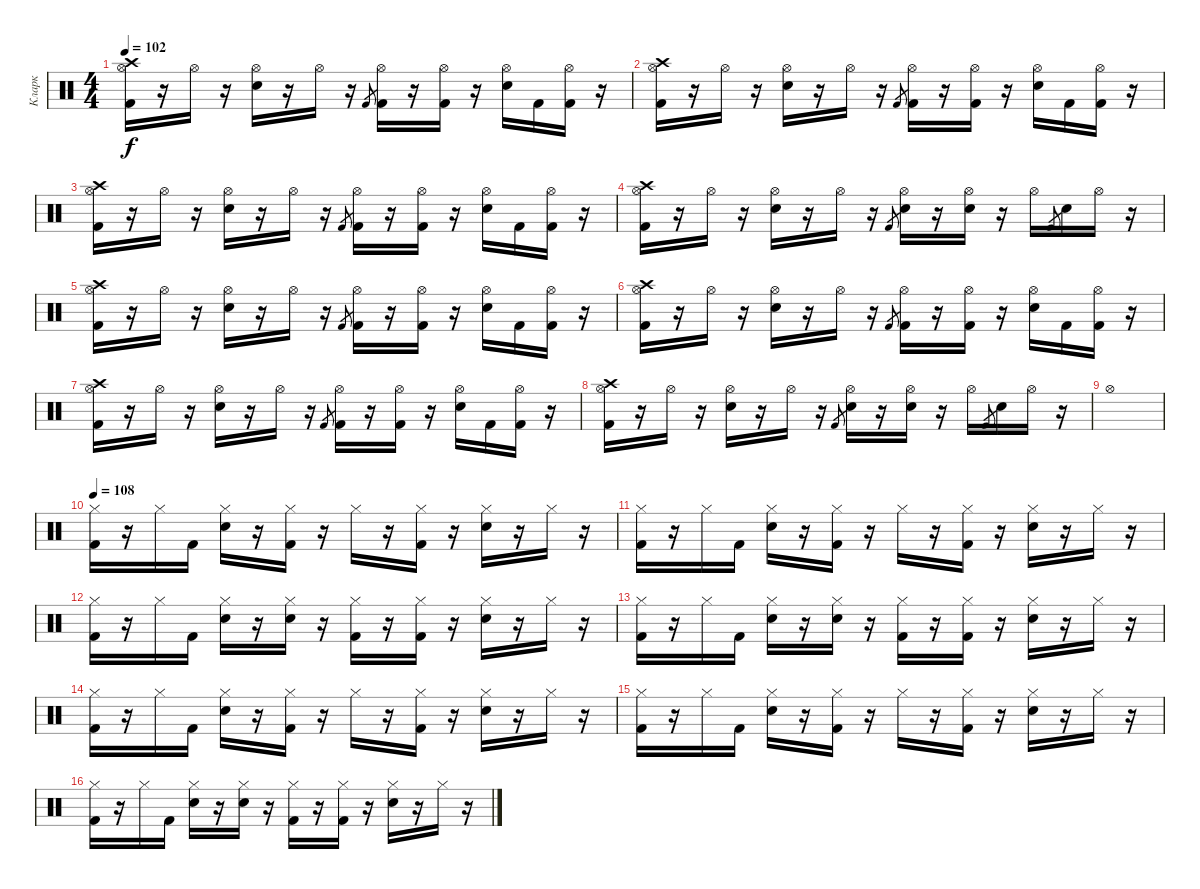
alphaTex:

\track ("Кларк" "Кларк") {instrument percussion}
\staff {score}
\articulation defaults
\ts (4 4)
\tempo 102
\clef neutral
\ks c
("Hi-Hat (open)" "Crash high (hit)" "Kick (hit) 2").16{dy f} r.16 "Hi-Hat (open)".16 r.16 ("Hi-Hat (open)" "Electric Snare (hit)").16 r.16 "Hi-Hat (open)".16 r.16 "Kick (hit) 2".8{gr} ("Hi-Hat (open)" "Kick (hit) 2").16 r.16 ("Hi-Hat (open)" "Kick (hit) 2").16 r.16 ("Hi-Hat (open)" "Electric Snare (hit)").16 "Kick (hit) 2".16 ("Hi-Hat (open)" "Kick (hit) 2").16 r.16 |
("Hi-Hat (open)" "Crash high (hit)" "Kick (hit) 2").16 r.16 "Hi-Hat (open)".16 r.16 ("Hi-Hat (open)" "Electric Snare (hit)").16 r.16 "Hi-Hat (open)".16 r.16 "Kick (hit) 2".8{gr} ("Hi-Hat (open)" "Kick (hit) 2").16 r.16 ("Hi-Hat (open)" "Kick (hit) 2").16 r.16 ("Hi-Hat (open)" "Electric Snare (hit)").16 "Kick (hit) 2".16 ("Hi-Hat (open)" "Kick (hit) 2").16 r.16 |
("Hi-Hat (open)" "Crash high (hit)" "Kick (hit) 2").16 r.16 "Hi-Hat (open)".16 r.16 ("Hi-Hat (open)" "Electric Snare (hit)").16 r.16 "Hi-Hat (open)".16 r.16 "Kick (hit) 2".8{gr} ("Hi-Hat (open)" "Kick (hit) 2").16 r.16 ("Hi-Hat (open)" "Kick (hit) 2").16 r.16 ("Hi-Hat (open)" "Electric Snare (hit)").16 "Kick (hit) 2".16 ("Hi-Hat (open)" "Kick (hit) 2").16 r.16 |
("Hi-Hat (open)" "Crash high (hit)" "Kick (hit) 2").16 r.16 "Hi-Hat (open)".16 r.16 ("Hi-Hat (open)" "Electric Snare (hit)").16 r.16 "Hi-Hat (open)".16 r.16 "Kick (hit) 2".8{gr} ("Hi-Hat (open)" "Electric Snare (hit)").16 r.16 ("Hi-Hat (open)" "Electric Snare (hit)").16 r.16 "Hi-Hat (open)".16 "Kick (hit) 2".8{gr} "Electric Snare (hit)".16 "Hi-Hat (open)".16 r.16 |
("Hi-Hat (open)" "Crash high (hit)" "Kick (hit) 2").16 r.16 "Hi-Hat (open)".16 r.16 ("Hi-Hat (open)" "Electric Snare (hit)").16 r.16 "Hi-Hat (open)".16 r.16 "Kick (hit) 2".8{gr} ("Hi-Hat (open)" "Kick (hit) 2").16 r.16 ("Hi-Hat (open)" "Kick (hit) 2").16 r.16 ("Hi-Hat (open)" "Electric Snare (hit)").16 "Kick (hit) 2".16 ("Hi-Hat (open)" "Kick (hit) 2").16 r.16 |
("Hi-Hat (open)" "Crash high (hit)" "Kick (hit) 2").16 r.16 "Hi-Hat (open)".16 r.16 ("Hi-Hat (open)" "Electric Snare (hit)").16 r.16 "Hi-Hat (open)".16 r.16 "Kick (hit) 2".8{gr} ("Hi-Hat (open)" "Kick (hit) 2").16 r.16 ("Hi-Hat (open)" "Kick (hit) 2").16 r.16 ("Hi-Hat (open)" "Electric Snare (hit)").16 "Kick (hit) 2".16 ("Hi-Hat (open)" "Kick (hit) 2").16 r.16 |
("Hi-Hat (open)" "Crash high (hit)" "Kick (hit) 2").16 r.16 "Hi-Hat (open)".16 r.16 ("Hi-Hat (open)" "Electric Snare (hit)").16 r.16 "Hi-Hat (open)".16 r.16 "Kick (hit) 2".8{gr} ("Hi-Hat (open)" "Kick (hit) 2").16 r.16 ("Hi-Hat (open)" "Kick (hit) 2").16 r.16 ("Hi-Hat (open)" "Electric Snare (hit)").16 "Kick (hit) 2".16 ("Hi-Hat (open)" "Kick (hit) 2").16 r.16 |
("Hi-Hat (open)" "Crash high (hit)" "Kick (hit) 2").16 r.16 "Hi-Hat (open)".16 r.16 ("Hi-Hat (open)" "Electric Snare (hit)").16 r.16 "Hi-Hat (open)".16 r.16 "Kick (hit) 2".8{gr} ("Hi-Hat (open)" "Electric Snare (hit)").16 r.16 ("Hi-Hat (open)" "Electric Snare (hit)").16 r.16 "Hi-Hat (open)".16 "Kick (hit) 2".8{gr} "Electric Snare (hit)".16 "Hi-Hat (open)".16 r.16 |
"Hi-Hat (open)".1 |
\tempo 108
("Hi-Hat (closed)" "Kick (hit) 2").16 r.16 "Hi-Hat (closed)".16 "Kick (hit) 2".16 ("Hi-Hat (closed)" "Electric Snare (hit)").16 r.16 ("Hi-Hat (closed)" "Kick (hit) 2").16 r.16 "Hi-Hat (closed)".16 r.16 ("Hi-Hat (closed)" "Kick (hit) 2").16 r.16 ("Hi-Hat (closed)" "Electric Snare (hit)").16 r.16 "Hi-Hat (closed)".16 r.16 |
("Hi-Hat (closed)" "Kick (hit) 2").16 r.16 "Hi-Hat (closed)".16 "Kick (hit) 2".16 ("Hi-Hat (closed)" "Electric Snare (hit)").16 r.16 ("Hi-Hat (closed)" "Kick (hit) 2").16 r.16 "Hi-Hat (closed)".16 r.16 ("Hi-Hat (closed)" "Kick (hit) 2").16 r.16 ("Hi-Hat (closed)" "Electric Snare (hit)").16 r.16 "Hi-Hat (closed)".16 r.16 |
("Hi-Hat (closed)" "Kick (hit) 2").16 r.16 "Hi-Hat (closed)".16 "Kick (hit) 2".16 ("Hi-Hat (closed)" "Electric Snare (hit)").16 r.16 ("Hi-Hat (closed)" "Electric Snare (hit)").16 r.16 ("Hi-Hat (closed)" "Kick (hit) 2").16 r.16 ("Hi-Hat (closed)" "Kick (hit) 2").16 r.16 ("Hi-Hat (closed)" "Electric Snare (hit)").16 r.16 "Hi-Hat (closed)".16 r.16 |
("Hi-Hat (closed)" "Kick (hit) 2").16 r.16 "Hi-Hat (closed)".16 "Kick (hit) 2".16 ("Hi-Hat (closed)" "Electric Snare (hit)").16 r.16 ("Hi-Hat (closed)" "Electric Snare (hit)").16 r.16 ("Hi-Hat (closed)" "Kick (hit) 2").16 r.16 ("Hi-Hat (closed)" "Kick (hit) 2").16 r.16 ("Hi-Hat (closed)" "Electric Snare (hit)").16 r.16 "Hi-Hat (closed)".16 r.16 |
("Hi-Hat (closed)" "Kick (hit) 2").16 r.16 "Hi-Hat (closed)".16 "Kick (hit) 2".16 ("Hi-Hat (closed)" "Electric Snare (hit)").16 r.16 ("Hi-Hat (closed)" "Kick (hit) 2").16 r.16 "Hi-Hat (closed)".16 r.16 ("Hi-Hat (closed)" "Kick (hit) 2").16 r.16 ("Hi-Hat (closed)" "Electric Snare (hit)").16 r.16 "Hi-Hat (closed)".16 r.16 |
("Hi-Hat (closed)" "Kick (hit) 2").16 r.16 "Hi-Hat (closed)".16 "Kick (hit) 2".16 ("Hi-Hat (closed)" "Electric Snare (hit)").16 r.16 ("Hi-Hat (closed)" "Kick (hit) 2").16 r.16 "Hi-Hat (closed)".16 r.16 ("Hi-Hat (closed)" "Kick (hit) 2").16 r.16 ("Hi-Hat (closed)" "Electric Snare (hit)").16 r.16 "Hi-Hat (closed)".16 r.16 |
("Hi-Hat (closed)" "Kick (hit) 2").16 r.16 "Hi-Hat (closed)".16 "Kick (hit) 2".16 ("Hi-Hat (closed)" "Electric Snare (hit)").16 r.16 ("Hi-Hat (closed)" "Electric Snare (hit)").16 r.16 ("Hi-Hat (closed)" "Kick (hit) 2").16 r.16 ("Hi-Hat (closed)" "Kick (hit) 2").16 r.16 ("Hi-Hat (closed)" "Electric Snare (hit)").16 r.16 "Hi-Hat (closed)".16 r.16
